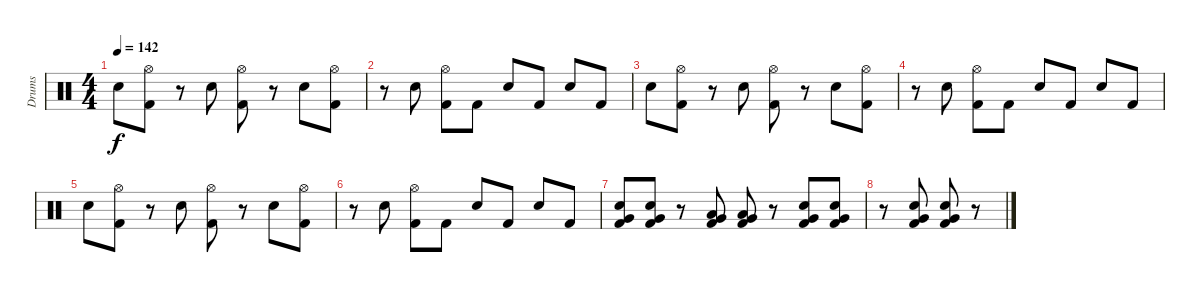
\track ("Drums" "Drums") {instrument percussion}
\staff {score}
\articulation defaults
\ts (4 4)
\tempo 142
\clef neutral
\ks c "Snare (hit) 2".8{dy f}
("Hi-Hat (open)" "Kick (hit) 2").8 r.8 "Snare (hit) 2".8 ("Hi-Hat (open)" "Kick (hit) 2").8 r.8 "Snare (hit) 2".8 ("Hi-Hat (open)" "Kick (hit) 2").8 |
r.8 "Snare (hit) 2".8 ("Hi-Hat (open)" "Kick (hit) 2").8 "Kick (hit) 2".8 "Snare (hit) 2".8 "Kick (hit) 2".8 "Snare (hit) 2".8 "Kick (hit) 2".8 |
"Snare (hit) 2".8 ("Hi-Hat (open)" "Kick (hit) 2").8 r.8 "Snare (hit) 2".8 ("Hi-Hat (open)" "Kick (hit) 2").8 r.8 "Snare (hit) 2".8 ("Hi-Hat (open)" "Kick (hit) 2").8 |
r.8 "Snare (hit) 2".8 ("Hi-Hat (open)" "Kick (hit) 2").8 "Kick (hit) 2".8 "Snare (hit) 2".8 "Kick (hit) 2".8 "Snare (hit) 2".8 "Kick (hit) 2".8 |
"Snare (hit) 2".8 ("Hi-Hat (open)" "Kick (hit) 2").8 r.8 "Snare (hit) 2".8 ("Hi-Hat (open)" "Kick (hit) 2").8 r.8 "Snare (hit) 2".8 ("Hi-Hat (open)" "Kick (hit) 2").8 |
r.8 "Snare (hit) 2".8 ("Hi-Hat (open)" "Kick (hit) 2").8 "Kick (hit) 2".8 "Snare (hit) 2".8 "Kick (hit) 2".8 "Snare (hit) 2".8 "Kick (hit) 2".8 |
("Very Low Tom (hit)" "Snare (hit) 2" "Kick (hit) 2").8 ("Very Low Tom (hit)" "Snare (hit) 2" "Kick (hit) 2").8 r.8 ("Very Low Tom (hit)" "Low Tom (hit)" "Kick (hit) 2").8 ("Very Low Tom (hit)" "Low Tom (hit)" "Kick (hit) 2").8 r.8 ("Very Low Tom (hit)" "Snare (hit) 2" "Kick (hit) 2").8 ("Very Low Tom (hit)" "Snare (hit) 2" "Kick (hit) 2").8 |
r.8 ("Very Low Tom (hit)" "Snare (hit) 2" "Kick (hit) 2").8 ("Very Low Tom (hit)" "Snare (hit) 2" "Kick (hit) 2").8 r.8
